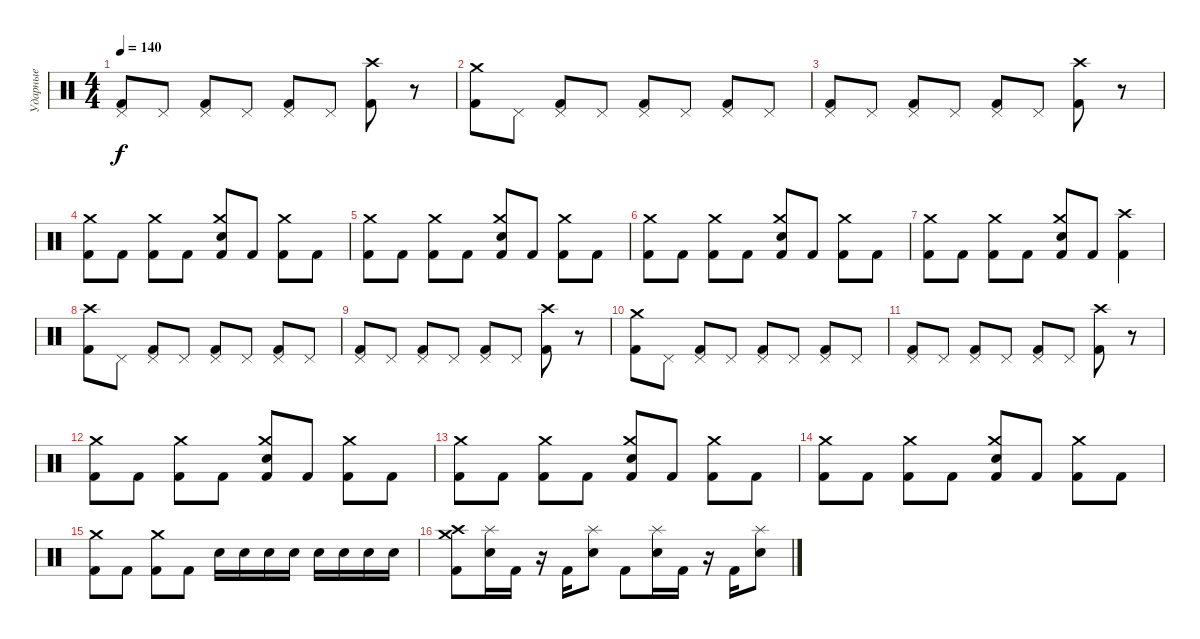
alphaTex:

\track ("Ударные" "Ударные") {instrument percussion}
\staff {score}
\articulation defaults
\ts (4 4)
\tempo 140
\clef neutral
\ks c
("Pedal Hi-Hat (hit)" "Kick (hit) 2").8{dy f} "Pedal Hi-Hat (hit)".8 ("Pedal Hi-Hat (hit)" "Kick (hit) 2").8 "Pedal Hi-Hat (hit)".8 ("Pedal Hi-Hat (hit)" "Kick (hit) 2").8 "Pedal Hi-Hat (hit)".8 ("Crash high (hit)" "Kick (hit) 2").8 r.8 |
("Crash medium (hit)" "Kick (hit) 2").8 "Pedal Hi-Hat (hit)".8 ("Pedal Hi-Hat (hit)" "Kick (hit) 2").8 "Pedal Hi-Hat (hit)".8 ("Pedal Hi-Hat (hit)" "Kick (hit) 2").8 "Pedal Hi-Hat (hit)".8 ("Pedal Hi-Hat (hit)" "Kick (hit) 2").8 "Pedal Hi-Hat (hit)".8 |
("Pedal Hi-Hat (hit)" "Kick (hit) 2").8 "Pedal Hi-Hat (hit)".8 ("Pedal Hi-Hat (hit)" "Kick (hit) 2").8 "Pedal Hi-Hat (hit)".8 ("Pedal Hi-Hat (hit)" "Kick (hit) 2").8 "Pedal Hi-Hat (hit)".8 ("Crash high (hit)" "Kick (hit) 2").8 r.8 |
("Crash medium (hit)" "Kick (hit) 2").8 "Kick (hit) 2".8 ("Crash medium (hit)" "Kick (hit) 2").8 "Kick (hit) 2".8 ("Crash medium (hit)" "Electric Snare (hit)" "Kick (hit) 2").8 "Kick (hit) 2".8 ("Crash medium (hit)" "Kick (hit) 2").8 "Kick (hit) 2".8 |
("Crash medium (hit)" "Kick (hit) 2").8 "Kick (hit) 2".8 ("Crash medium (hit)" "Kick (hit) 2").8 "Kick (hit) 2".8 ("Crash medium (hit)" "Electric Snare (hit)" "Kick (hit) 2").8 "Kick (hit) 2".8 ("Crash medium (hit)" "Kick (hit) 2").8 "Kick (hit) 2".8 |
("Crash medium (hit)" "Kick (hit) 2").8 "Kick (hit) 2".8 ("Crash medium (hit)" "Kick (hit) 2").8 "Kick (hit) 2".8 ("Crash medium (hit)" "Electric Snare (hit)" "Kick (hit) 2").8 "Kick (hit) 2".8 ("Crash medium (hit)" "Kick (hit) 2").8 "Kick (hit) 2".8 |
("Crash medium (hit)" "Kick (hit) 2").8 "Kick (hit) 2".8 ("Crash medium (hit)" "Kick (hit) 2").8 "Kick (hit) 2".8 ("Crash medium (hit)" "Electric Snare (hit)" "Kick (hit) 2").8 "Kick (hit) 2".8 ("Crash high (hit)" "Kick (hit) 2").4 |
("Crash high (hit)" "Kick (hit) 2").8 "Pedal Hi-Hat (hit)".8 ("Pedal Hi-Hat (hit)" "Kick (hit) 2").8 "Pedal Hi-Hat (hit)".8 ("Pedal Hi-Hat (hit)" "Kick (hit) 2").8 "Pedal Hi-Hat (hit)".8 ("Pedal Hi-Hat (hit)" "Kick (hit) 2").8 "Pedal Hi-Hat (hit)".8 |
("Pedal Hi-Hat (hit)" "Kick (hit) 2").8 "Pedal Hi-Hat (hit)".8 ("Pedal Hi-Hat (hit)" "Kick (hit) 2").8 "Pedal Hi-Hat (hit)".8 ("Pedal Hi-Hat (hit)" "Kick (hit) 2").8 "Pedal Hi-Hat (hit)".8 ("Crash high (hit)" "Kick (hit) 2").8 r.8 |
("Crash medium (hit)" "Kick (hit) 2").8 "Pedal Hi-Hat (hit)".8 ("Pedal Hi-Hat (hit)" "Kick (hit) 2").8 "Pedal Hi-Hat (hit)".8 ("Pedal Hi-Hat (hit)" "Kick (hit) 2").8 "Pedal Hi-Hat (hit)".8 ("Pedal Hi-Hat (hit)" "Kick (hit) 2").8 "Pedal Hi-Hat (hit)".8 |
("Pedal Hi-Hat (hit)" "Kick (hit) 2").8 "Pedal Hi-Hat (hit)".8 ("Pedal Hi-Hat (hit)" "Kick (hit) 2").8 "Pedal Hi-Hat (hit)".8 ("Pedal Hi-Hat (hit)" "Kick (hit) 2").8 "Pedal Hi-Hat (hit)".8 ("Crash high (hit)" "Kick (hit) 2").8 r.8 |
("Crash medium (hit)" "Kick (hit) 2").8 "Kick (hit) 2".8 ("Crash medium (hit)" "Kick (hit) 2").8 "Kick (hit) 2".8 ("Crash medium (hit)" "Electric Snare (hit)" "Kick (hit) 2").8 "Kick (hit) 2".8 ("Crash medium (hit)" "Kick (hit) 2").8 "Kick (hit) 2".8 |
("Crash medium (hit)" "Kick (hit) 2").8 "Kick (hit) 2".8 ("Crash medium (hit)" "Kick (hit) 2").8 "Kick (hit) 2".8 ("Crash medium (hit)" "Electric Snare (hit)" "Kick (hit) 2").8 "Kick (hit) 2".8 ("Crash medium (hit)" "Kick (hit) 2").8 "Kick (hit) 2".8 |
("Crash medium (hit)" "Kick (hit) 2").8 "Kick (hit) 2".8 ("Crash medium (hit)" "Kick (hit) 2").8 "Kick (hit) 2".8 ("Crash medium (hit)" "Electric Snare (hit)" "Kick (hit) 2").8 "Kick (hit) 2".8 ("Crash medium (hit)" "Kick (hit) 2").8 "Kick (hit) 2".8 |
("Crash medium (hit)" "Kick (hit) 2").8 "Kick (hit) 2".8 ("Crash medium (hit)" "Kick (hit) 2").8 "Kick (hit) 2".8 "Electric Snare (hit)".16 "Electric Snare (hit)".16 "Electric Snare (hit)".16 "Electric Snare (hit)".16 "Electric Snare (hit)".16 "Electric Snare (hit)".16 "Electric Snare (hit)".16 "Electric Snare (hit)".16 |
("Crash medium (hit)" "Crash high (hit)" "Kick (hit) 2").8 ("Splash (hit)" "Electric Snare (hit)").16 "Kick (hit) 2".16 r.16 "Kick (hit) 2".16 ("Splash (hit)" "Electric Snare (hit)").8 "Kick (hit) 2".8 ("Splash (hit)" "Electric Snare (hit)").16 "Kick (hit) 2".16 r.16 "Kick (hit) 2".16 ("Splash (hit)" "Electric Snare (hit)").8
